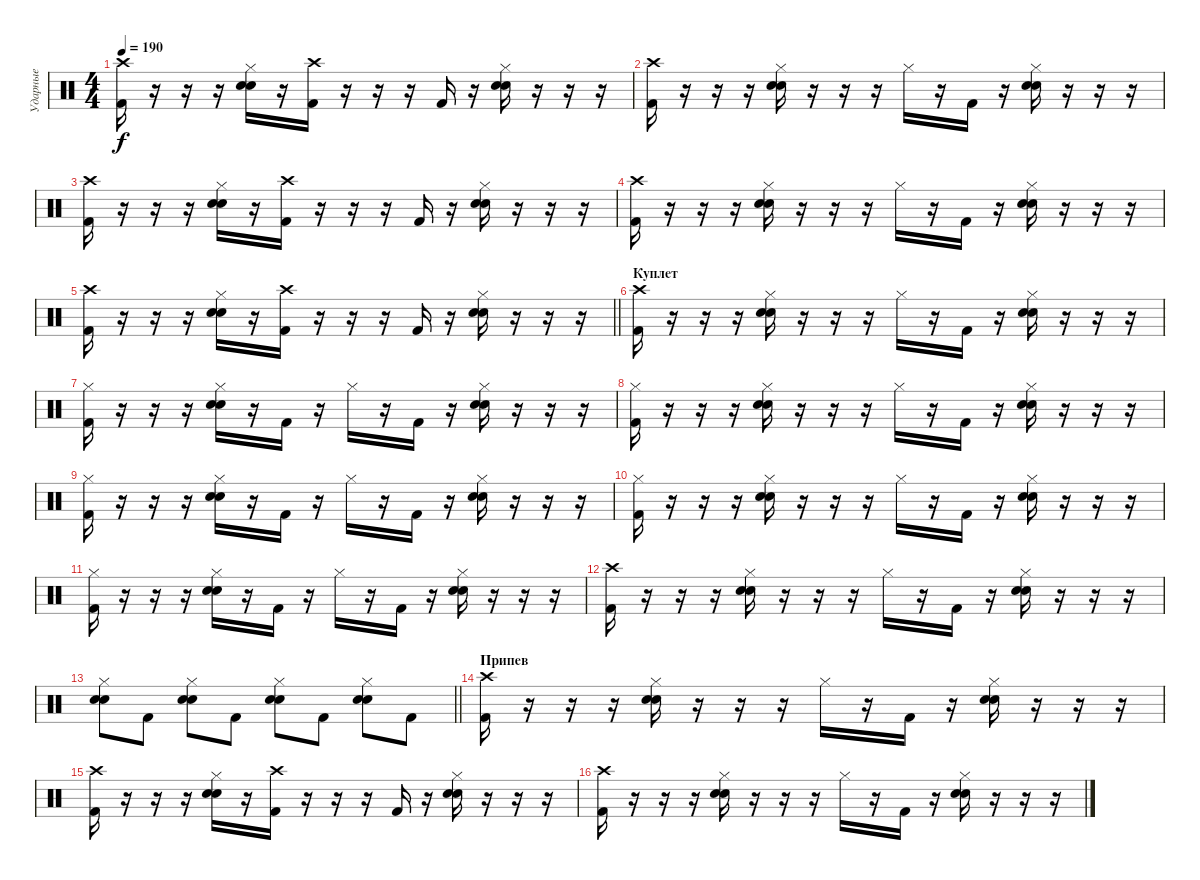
\track ("Ударные" "Ударные") {instrument percussion}
\staff {score}
\articulation defaults
\ts (4 4)
\tempo 190
\clef neutral
\ks c
("Kick (hit) 2" "Crash high (hit)").16{dy f} r.16 r.16 r.16 ("Snare (hit) 2" "Electric Snare (hit)" "Hi-Hat (closed)").16 r.16 ("Kick (hit) 2" "Crash high (hit)").16 r.16 r.16 r.16 "Kick (hit) 2".16 r.16 ("Snare (hit) 2" "Electric Snare (hit)" "Hi-Hat (closed)").16 r.16 r.16 r.16 |
("Kick (hit) 2" "Crash high (hit)").16 r.16 r.16 r.16 ("Snare (hit) 2" "Electric Snare (hit)" "Hi-Hat (closed)").16 r.16 r.16 r.16 "Hi-Hat (closed)".16 r.16 "Kick (hit) 2".16 r.16 ("Snare (hit) 2" "Electric Snare (hit)" "Hi-Hat (closed)").16 r.16 r.16 r.16 |
("Kick (hit) 2" "Crash high (hit)").16 r.16 r.16 r.16 ("Snare (hit) 2" "Electric Snare (hit)" "Hi-Hat (closed)").16 r.16 ("Kick (hit) 2" "Crash high (hit)").16 r.16 r.16 r.16 "Kick (hit) 2".16 r.16 ("Snare (hit) 2" "Electric Snare (hit)" "Hi-Hat (closed)").16 r.16 r.16 r.16 |
("Kick (hit) 2" "Crash high (hit)").16 r.16 r.16 r.16 ("Snare (hit) 2" "Electric Snare (hit)" "Hi-Hat (closed)").16 r.16 r.16 r.16 "Hi-Hat (closed)".16 r.16 "Kick (hit) 2".16 r.16 ("Snare (hit) 2" "Electric Snare (hit)" "Hi-Hat (closed)").16 r.16 r.16 r.16 |
\barLineRight lightlight
("Kick (hit) 2" "Crash high (hit)").16 r.16 r.16 r.16 ("Snare (hit) 2" "Electric Snare (hit)" "Hi-Hat (closed)").16 r.16 ("Kick (hit) 2" "Crash high (hit)").16 r.16 r.16 r.16 "Kick (hit) 2".16 r.16 ("Snare (hit) 2" "Electric Snare (hit)" "Hi-Hat (closed)").16 r.16 r.16 r.16 |
\section ("" "Куплет")
("Kick (hit) 2" "Crash high (hit)").16 r.16 r.16 r.16 ("Snare (hit) 2" "Electric Snare (hit)" "Hi-Hat (closed)").16 r.16 r.16 r.16 "Hi-Hat (closed)".16 r.16 "Kick (hit) 2".16 r.16 ("Snare (hit) 2" "Electric Snare (hit)" "Hi-Hat (closed)").16 r.16 r.16 r.16 |
("Kick (hit) 2" "Hi-Hat (closed)").16 r.16 r.16 r.16 ("Snare (hit) 2" "Electric Snare (hit)" "Hi-Hat (closed)").16 r.16 "Kick (hit) 2".16 r.16 "Hi-Hat (closed)".16 r.16 "Kick (hit) 2".16 r.16 ("Snare (hit) 2" "Electric Snare (hit)" "Hi-Hat (closed)").16 r.16 r.16 r.16 |
("Kick (hit) 2" "Hi-Hat (closed)").16 r.16 r.16 r.16 ("Snare (hit) 2" "Electric Snare (hit)" "Hi-Hat (closed)").16 r.16 r.16 r.16 "Hi-Hat (closed)".16 r.16 "Kick (hit) 2".16 r.16 ("Snare (hit) 2" "Electric Snare (hit)" "Hi-Hat (closed)").16 r.16 r.16 r.16 |
("Kick (hit) 2" "Hi-Hat (closed)").16 r.16 r.16 r.16 ("Snare (hit) 2" "Electric Snare (hit)" "Hi-Hat (closed)").16 r.16 "Kick (hit) 2".16 r.16 "Hi-Hat (closed)".16 r.16 "Kick (hit) 2".16 r.16 ("Snare (hit) 2" "Electric Snare (hit)" "Hi-Hat (closed)").16 r.16 r.16 r.16 |
("Kick (hit) 2" "Hi-Hat (closed)").16 r.16 r.16 r.16 ("Snare (hit) 2" "Electric Snare (hit)" "Hi-Hat (closed)").16 r.16 r.16 r.16 "Hi-Hat (closed)".16 r.16 "Kick (hit) 2".16 r.16 ("Snare (hit) 2" "Electric Snare (hit)" "Hi-Hat (closed)").16 r.16 r.16 r.16 |
("Kick (hit) 2" "Hi-Hat (closed)").16 r.16 r.16 r.16 ("Snare (hit) 2" "Electric Snare (hit)" "Hi-Hat (closed)").16 r.16 "Kick (hit) 2".16 r.16 "Hi-Hat (closed)".16 r.16 "Kick (hit) 2".16 r.16 ("Snare (hit) 2" "Electric Snare (hit)" "Hi-Hat (closed)").16 r.16 r.16 r.16 |
("Kick (hit) 2" "Crash high (hit)").16 r.16 r.16 r.16 ("Snare (hit) 2" "Electric Snare (hit)" "Hi-Hat (closed)").16 r.16 r.16 r.16 "Hi-Hat (closed)".16 r.16 "Kick (hit) 2".16 r.16 ("Snare (hit) 2" "Electric Snare (hit)" "Hi-Hat (closed)").16 r.16 r.16 r.16 |
\barLineRight lightlight
("Snare (hit) 2" "Electric Snare (hit)" "Hi-Hat (closed)").8 "Kick (hit) 2".8 ("Snare (hit) 2" "Electric Snare (hit)" "Hi-Hat (closed)").8 "Kick (hit) 2".8 ("Snare (hit) 2" "Electric Snare (hit)" "Hi-Hat (closed)").8 "Kick (hit) 2".8 ("Snare (hit) 2" "Electric Snare (hit)" "Hi-Hat (closed)").8 "Kick (hit) 2".8 |
\section ("" "Припев")
("Kick (hit) 2" "Crash high (hit)").16 r.16 r.16 r.16 ("Snare (hit) 2" "Electric Snare (hit)" "Hi-Hat (closed)").16 r.16 r.16 r.16 "Hi-Hat (closed)".16 r.16 "Kick (hit) 2".16 r.16 ("Snare (hit) 2" "Electric Snare (hit)" "Hi-Hat (closed)").16 r.16 r.16 r.16 |
("Kick (hit) 2" "Crash high (hit)").16 r.16 r.16 r.16 ("Snare (hit) 2" "Electric Snare (hit)" "Hi-Hat (closed)").16 r.16 ("Kick (hit) 2" "Crash high (hit)").16 r.16 r.16 r.16 "Kick (hit) 2".16 r.16 ("Snare (hit) 2" "Electric Snare (hit)" "Hi-Hat (closed)").16 r.16 r.16 r.16 |
("Kick (hit) 2" "Crash high (hit)").16 r.16 r.16 r.16 ("Snare (hit) 2" "Electric Snare (hit)" "Hi-Hat (closed)").16 r.16 r.16 r.16 "Hi-Hat (closed)".16 r.16 "Kick (hit) 2".16 r.16 ("Snare (hit) 2" "Electric Snare (hit)" "Hi-Hat (closed)").16 r.16 r.16 r.16
